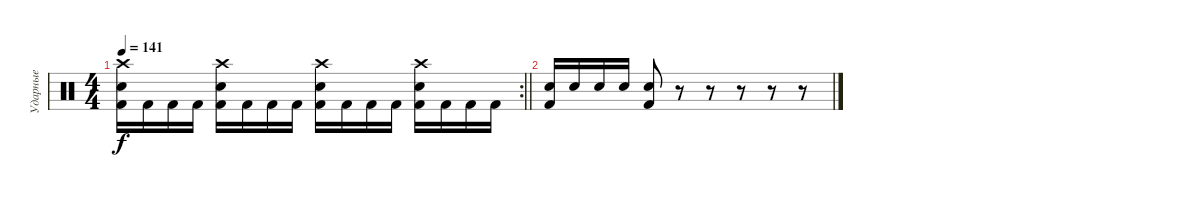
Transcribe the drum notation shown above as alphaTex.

\track ("Ударные" "Ударные") {instrument percussion}
\staff {score}
\articulation defaults
\rc 2
\ts (4 4)
\tempo 141
\clef neutral
\barLineRight lightlight
\ks c
("Crash high (hit)" "Electric Snare (hit)" "Kick (hit) 2").16{dy f} "Kick (hit) 2".16 "Kick (hit) 2".16 "Kick (hit) 2".16 ("Crash high (hit)" "Electric Snare (hit)" "Kick (hit) 2").16 "Kick (hit) 2".16 "Kick (hit) 2".16 "Kick (hit) 2".16 ("Crash high (hit)" "Electric Snare (hit)" "Kick (hit) 2").16 "Kick (hit) 2".16 "Kick (hit) 2".16 "Kick (hit) 2".16 ("Crash high (hit)" "Electric Snare (hit)" "Kick (hit) 2").16 "Kick (hit) 2".16 "Kick (hit) 2".16 "Kick (hit) 2".16 |
("Electric Snare (hit)" "Kick (hit) 2").16 "Electric Snare (hit)".16 "Electric Snare (hit)".16 "Electric Snare (hit)".16 ("Electric Snare (hit)" "Kick (hit) 2").8 r.8 r.8 r.8 r.8 r.8
